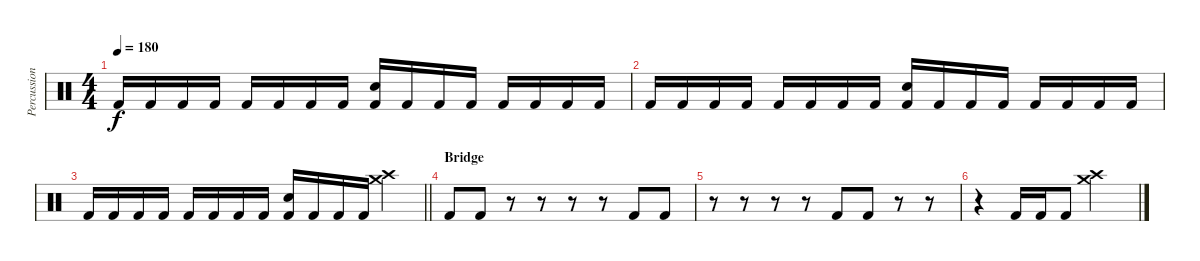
\track ("Percussion" "Percussion") {instrument percussion}
\staff {score}
\articulation defaults
\ts (4 4)
\tempo 180
\clef neutral
\ks c "Kick (hit) 2".16{dy f} "Kick (hit) 2".16 "Kick (hit) 2".16 "Kick (hit) 2".16 "Kick (hit) 2".16 "Kick (hit) 2".16 "Kick (hit) 2".16 "Kick (hit) 2".16
("Kick (hit) 2" "Electric Snare (hit)").16 "Kick (hit) 2".16 "Kick (hit) 2".16 "Kick (hit) 2".16 "Kick (hit) 2".16 "Kick (hit) 2".16 "Kick (hit) 2".16 "Kick (hit) 2".16 |
"Kick (hit) 2".16 "Kick (hit) 2".16 "Kick (hit) 2".16 "Kick (hit) 2".16 "Kick (hit) 2".16 "Kick (hit) 2".16 "Kick (hit) 2".16 "Kick (hit) 2".16 ("Kick (hit) 2" "Electric Snare (hit)").16 "Kick (hit) 2".16 "Kick (hit) 2".16 "Kick (hit) 2".16 "Kick (hit) 2".16 "Kick (hit) 2".16 "Kick (hit) 2".16 "Kick (hit) 2".16 |
\barLineRight lightlight "Kick (hit) 2".16 "Kick (hit) 2".16 "Kick (hit) 2".16 "Kick (hit) 2".16 "Kick (hit) 2".16 "Kick (hit) 2".16 "Kick (hit) 2".16 "Kick (hit) 2".16
("Kick (hit) 2" "Electric Snare (hit)").16 "Kick (hit) 2".16 "Kick (hit) 2".16 "Kick (hit) 2".16 ("Crash high (hit)" "Crash medium (hit)").4 |
\section ("" "Bridge")
"Kick (hit) 2".8 "Kick (hit) 2".8 r.8 r.8 r.8 r.8 "Kick (hit) 2".8 "Kick (hit) 2".8 |
r.8 r.8 r.8 r.8 "Kick (hit) 2".8 "Kick (hit) 2".8 r.8 r.8 |
r.4 "Kick (hit) 2".16 "Kick (hit) 2".16 "Kick (hit) 2".8 ("Crash high (hit)" "Crash medium (hit)").2
